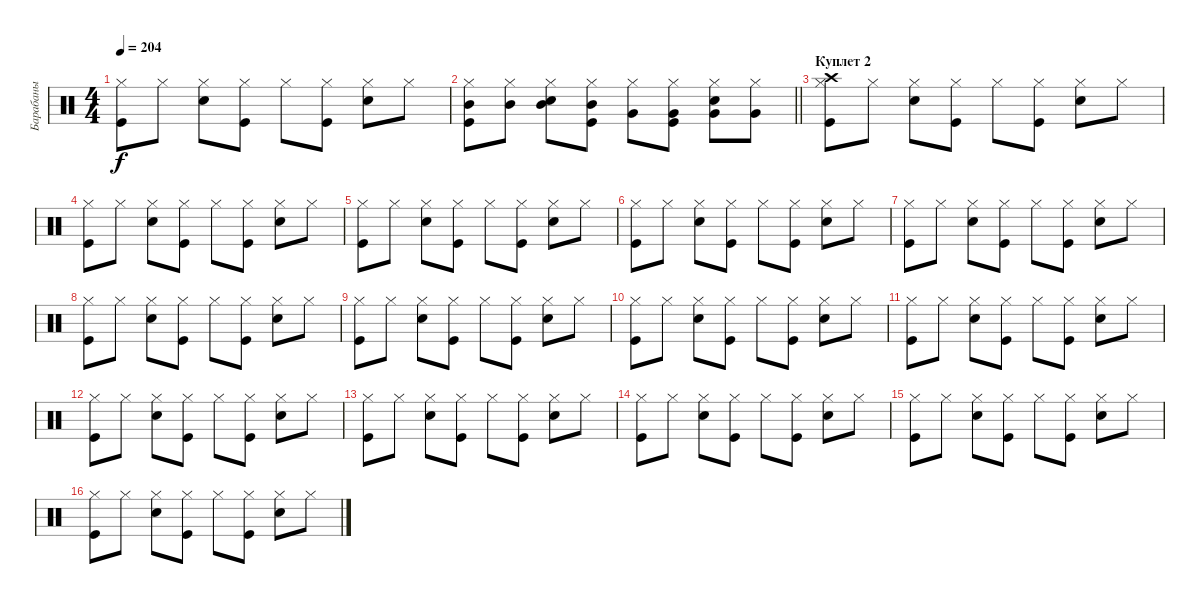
\track ("Барабаны" "Барабаны") {instrument percussion}
\staff {score}
\articulation defaults
\ts (4 4)
\tempo 204
\clef neutral
\ks c
("Kick (hit)" "Hi-Hat (closed)").8{dy f} "Hi-Hat (closed)".8 ("Snare (hit) 2" "Hi-Hat (closed)").8 ("Kick (hit)" "Hi-Hat (closed)").8 "Hi-Hat (closed)".8 ("Kick (hit)" "Hi-Hat (closed)").8 ("Snare (hit) 2" "Hi-Hat (closed)").8 "Hi-Hat (closed)".8 |
\barLineRight lightlight
("Kick (hit)" "Hi-Hat (closed)" "Mid Tom (hit)").8 ("Hi-Hat (closed)" "Mid Tom (hit)").8 ("Snare (hit) 2" "Hi-Hat (closed)" "Mid Tom (hit)").8 ("Kick (hit)" "Hi-Hat (closed)" "Mid Tom (hit)").8 ("Hi-Hat (closed)" "Very Low Tom (hit)").8 ("Kick (hit)" "Hi-Hat (closed)" "Very Low Tom (hit)").8 ("Snare (hit) 2" "Hi-Hat (closed)" "Very Low Tom (hit)").8 ("Hi-Hat (closed)" "Very Low Tom (hit)").8 |
\section ("" "Куплет 2")
("Kick (hit)" "Hi-Hat (closed)" "Crash high (hit)").8 "Hi-Hat (closed)".8 ("Snare (hit) 2" "Hi-Hat (closed)").8 ("Kick (hit)" "Hi-Hat (closed)").8 "Hi-Hat (closed)".8 ("Kick (hit)" "Hi-Hat (closed)").8 ("Snare (hit) 2" "Hi-Hat (closed)").8 "Hi-Hat (closed)".8 |
("Kick (hit)" "Hi-Hat (closed)").8 "Hi-Hat (closed)".8 ("Snare (hit) 2" "Hi-Hat (closed)").8 ("Kick (hit)" "Hi-Hat (closed)").8 "Hi-Hat (closed)".8 ("Kick (hit)" "Hi-Hat (closed)").8 ("Snare (hit) 2" "Hi-Hat (closed)").8 "Hi-Hat (closed)".8 |
("Kick (hit)" "Hi-Hat (closed)").8 "Hi-Hat (closed)".8 ("Snare (hit) 2" "Hi-Hat (closed)").8 ("Kick (hit)" "Hi-Hat (closed)").8 "Hi-Hat (closed)".8 ("Kick (hit)" "Hi-Hat (closed)").8 ("Snare (hit) 2" "Hi-Hat (closed)").8 "Hi-Hat (closed)".8 |
("Kick (hit)" "Hi-Hat (closed)").8 "Hi-Hat (closed)".8 ("Snare (hit) 2" "Hi-Hat (closed)").8 ("Kick (hit)" "Hi-Hat (closed)").8 "Hi-Hat (closed)".8 ("Kick (hit)" "Hi-Hat (closed)").8 ("Snare (hit) 2" "Hi-Hat (closed)").8 "Hi-Hat (closed)".8 |
("Kick (hit)" "Hi-Hat (closed)").8 "Hi-Hat (closed)".8 ("Snare (hit) 2" "Hi-Hat (closed)").8 ("Kick (hit)" "Hi-Hat (closed)").8 "Hi-Hat (closed)".8 ("Kick (hit)" "Hi-Hat (closed)").8 ("Snare (hit) 2" "Hi-Hat (closed)").8 "Hi-Hat (closed)".8 |
("Kick (hit)" "Hi-Hat (closed)").8 "Hi-Hat (closed)".8 ("Snare (hit) 2" "Hi-Hat (closed)").8 ("Kick (hit)" "Hi-Hat (closed)").8 "Hi-Hat (closed)".8 ("Kick (hit)" "Hi-Hat (closed)").8 ("Snare (hit) 2" "Hi-Hat (closed)").8 "Hi-Hat (closed)".8 |
("Kick (hit)" "Hi-Hat (closed)").8 "Hi-Hat (closed)".8 ("Snare (hit) 2" "Hi-Hat (closed)").8 ("Kick (hit)" "Hi-Hat (closed)").8 "Hi-Hat (closed)".8 ("Kick (hit)" "Hi-Hat (closed)").8 ("Snare (hit) 2" "Hi-Hat (closed)").8 "Hi-Hat (closed)".8 |
("Kick (hit)" "Hi-Hat (closed)").8 "Hi-Hat (closed)".8 ("Snare (hit) 2" "Hi-Hat (closed)").8 ("Kick (hit)" "Hi-Hat (closed)").8 "Hi-Hat (closed)".8 ("Kick (hit)" "Hi-Hat (closed)").8 ("Snare (hit) 2" "Hi-Hat (closed)").8 "Hi-Hat (closed)".8 |
("Kick (hit)" "Hi-Hat (closed)").8 "Hi-Hat (closed)".8 ("Snare (hit) 2" "Hi-Hat (closed)").8 ("Kick (hit)" "Hi-Hat (closed)").8 "Hi-Hat (closed)".8 ("Kick (hit)" "Hi-Hat (closed)").8 ("Snare (hit) 2" "Hi-Hat (closed)").8 "Hi-Hat (closed)".8 |
("Kick (hit)" "Hi-Hat (closed)").8 "Hi-Hat (closed)".8 ("Snare (hit) 2" "Hi-Hat (closed)").8 ("Kick (hit)" "Hi-Hat (closed)").8 "Hi-Hat (closed)".8 ("Kick (hit)" "Hi-Hat (closed)").8 ("Snare (hit) 2" "Hi-Hat (closed)").8 "Hi-Hat (closed)".8 |
("Kick (hit)" "Hi-Hat (closed)").8 "Hi-Hat (closed)".8 ("Snare (hit) 2" "Hi-Hat (closed)").8 ("Kick (hit)" "Hi-Hat (closed)").8 "Hi-Hat (closed)".8 ("Kick (hit)" "Hi-Hat (closed)").8 ("Snare (hit) 2" "Hi-Hat (closed)").8 "Hi-Hat (closed)".8 |
("Kick (hit)" "Hi-Hat (closed)").8 "Hi-Hat (closed)".8 ("Snare (hit) 2" "Hi-Hat (closed)").8 ("Kick (hit)" "Hi-Hat (closed)").8 "Hi-Hat (closed)".8 ("Kick (hit)" "Hi-Hat (closed)").8 ("Snare (hit) 2" "Hi-Hat (closed)").8 "Hi-Hat (closed)".8 |
("Kick (hit)" "Hi-Hat (closed)").8 "Hi-Hat (closed)".8 ("Snare (hit) 2" "Hi-Hat (closed)").8 ("Kick (hit)" "Hi-Hat (closed)").8 "Hi-Hat (closed)".8 ("Kick (hit)" "Hi-Hat (closed)").8 ("Snare (hit) 2" "Hi-Hat (closed)").8 "Hi-Hat (closed)".8 |
("Kick (hit)" "Hi-Hat (closed)").8 "Hi-Hat (closed)".8 ("Snare (hit) 2" "Hi-Hat (closed)").8 ("Kick (hit)" "Hi-Hat (closed)").8 "Hi-Hat (closed)".8 ("Kick (hit)" "Hi-Hat (closed)").8 ("Snare (hit) 2" "Hi-Hat (closed)").8 "Hi-Hat (closed)".8
